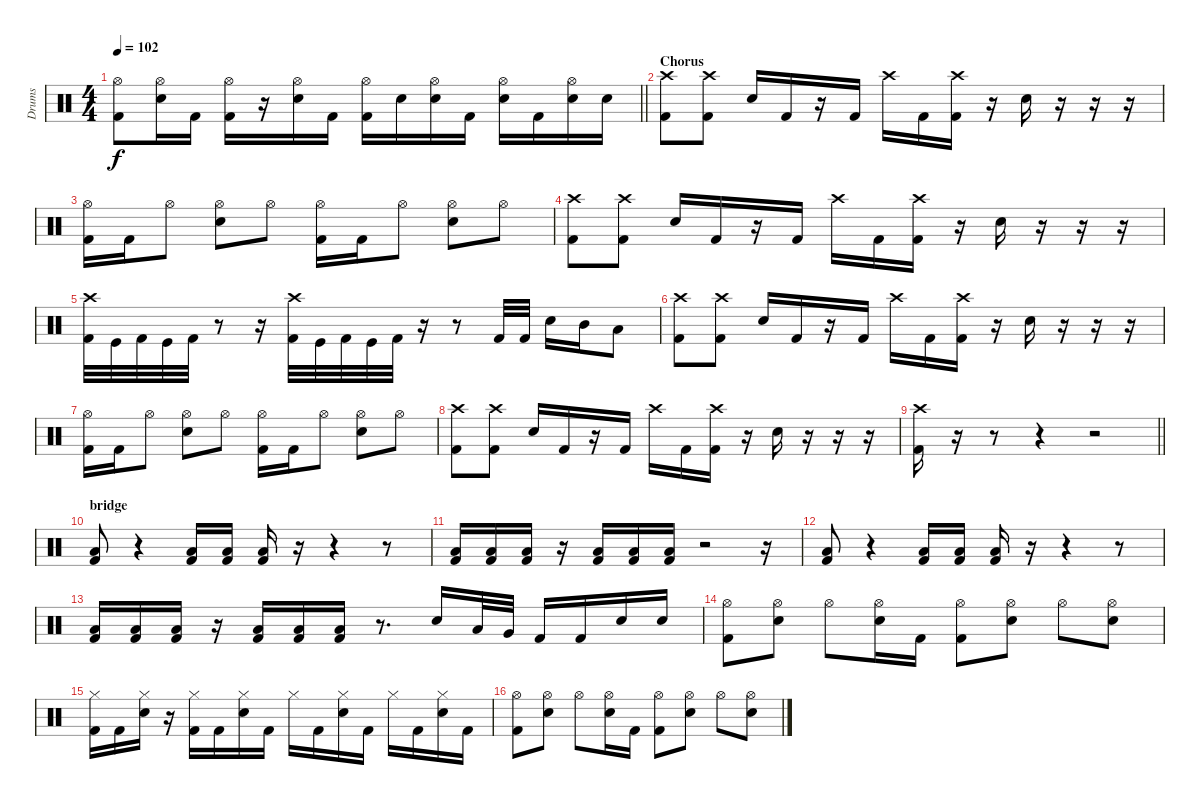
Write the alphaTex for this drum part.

\track ("Drums" "Drums") {instrument percussion}
\staff {score}
\articulation defaults
\ts (4 4)
\tempo 102
\clef neutral
\barLineRight lightlight
\ks c
("Kick (hit) 2" "Hi-Hat (open)").8{dy f} ("Electric Snare (hit)" "Hi-Hat (open)").16 "Kick (hit) 2".16 ("Kick (hit) 2" "Hi-Hat (open)").16 r.16 ("Electric Snare (hit)" "Hi-Hat (open)").16 "Kick (hit) 2".16 ("Kick (hit) 2" "Hi-Hat (open)").16 "Electric Snare (hit)".16 ("Electric Snare (hit)" "Hi-Hat (open)").16 "Kick (hit) 2".16 ("Electric Snare (hit)" "Hi-Hat (open)").16 "Kick (hit) 2".16 ("Electric Snare (hit)" "Hi-Hat (open)").16 "Electric Snare (hit)".16 |
\section ("" "Chorus")
("Kick (hit) 2" "Crash high (hit)").8 ("Kick (hit) 2" "Crash high (hit)").8 "Electric Snare (hit)".16 "Kick (hit) 2".16 r.16 "Kick (hit) 2".16 "Crash high (hit)".16 "Kick (hit) 2".16 ("Kick (hit) 2" "Crash high (hit)").16 r.16 "Electric Snare (hit)".16 r.16 r.16 r.16 |
("Kick (hit) 2" "Hi-Hat (open)").16 "Kick (hit) 2".16 "Hi-Hat (open)".8 ("Electric Snare (hit)" "Hi-Hat (open)").8 "Hi-Hat (open)".8 ("Kick (hit) 2" "Hi-Hat (open)").16 "Kick (hit) 2".16 "Hi-Hat (open)".8 ("Electric Snare (hit)" "Hi-Hat (open)").8 "Hi-Hat (open)".8 |
("Kick (hit) 2" "Crash high (hit)").8 ("Kick (hit) 2" "Crash high (hit)").8 "Electric Snare (hit)".16 "Kick (hit) 2".16 r.16 "Kick (hit) 2".16 "Crash high (hit)".16 "Kick (hit) 2".16 ("Kick (hit) 2" "Crash high (hit)").16 r.16 "Electric Snare (hit)".16 r.16 r.16 r.16 |
("Kick (hit) 2" "Crash high (hit)").32 "Kick (hit)".32 "Kick (hit) 2".32 "Kick (hit)".32 "Kick (hit) 2".32 r.8 r.16 ("Kick (hit) 2" "Crash high (hit)").32 "Kick (hit)".32 "Kick (hit) 2".32 "Kick (hit)".32 "Kick (hit) 2".32 r.16 r.8 "Kick (hit) 2".32 "Kick (hit) 2".32 "Electric Snare (hit)".16 "Mid Tom (hit)".16 "Low Tom (hit)".8 |
("Kick (hit) 2" "Crash high (hit)").8 ("Kick (hit) 2" "Crash high (hit)").8 "Electric Snare (hit)".16 "Kick (hit) 2".16 r.16 "Kick (hit) 2".16 "Crash high (hit)".16 "Kick (hit) 2".16 ("Kick (hit) 2" "Crash high (hit)").16 r.16 "Electric Snare (hit)".16 r.16 r.16 r.16 |
("Kick (hit) 2" "Hi-Hat (open)").16 "Kick (hit) 2".16 "Hi-Hat (open)".8 ("Electric Snare (hit)" "Hi-Hat (open)").8 "Hi-Hat (open)".8 ("Kick (hit) 2" "Hi-Hat (open)").16 "Kick (hit) 2".16 "Hi-Hat (open)".8 ("Electric Snare (hit)" "Hi-Hat (open)").8 "Hi-Hat (open)".8 |
("Kick (hit) 2" "Crash high (hit)").8 ("Kick (hit) 2" "Crash high (hit)").8 "Electric Snare (hit)".16 "Kick (hit) 2".16 r.16 "Kick (hit) 2".16 "Crash high (hit)".16 "Kick (hit) 2".16 ("Kick (hit) 2" "Crash high (hit)").16 r.16 "Electric Snare (hit)".16 r.16 r.16 r.16 |
\barLineRight lightlight
("Kick (hit) 2" "Crash high (hit)").16 r.16 r.8 r.4 r.2 |
\section ("" "bridge")
("Kick (hit) 2" "Low Tom (hit)").8 r.4 ("Kick (hit) 2" "Low Tom (hit)").16 ("Kick (hit) 2" "Low Tom (hit)").16 ("Kick (hit) 2" "Low Tom (hit)").16 r.16 r.4 r.8 |
("Kick (hit) 2" "Low Tom (hit)").16 ("Kick (hit) 2" "Low Tom (hit)").16 ("Kick (hit) 2" "Low Tom (hit)").16 r.16 ("Kick (hit) 2" "Low Tom (hit)").16 ("Kick (hit) 2" "Low Tom (hit)").16 ("Kick (hit) 2" "Low Tom (hit)").16 r.2 r.16 |
("Kick (hit) 2" "Low Tom (hit)").8 r.4 ("Kick (hit) 2" "Low Tom (hit)").16 ("Kick (hit) 2" "Low Tom (hit)").16 ("Kick (hit) 2" "Low Tom (hit)").16 r.16 r.4 r.8 |
("Kick (hit) 2" "Low Tom (hit)").16 ("Kick (hit) 2" "Low Tom (hit)").16 ("Kick (hit) 2" "Low Tom (hit)").16 r.16 ("Kick (hit) 2" "Low Tom (hit)").16 ("Kick (hit) 2" "Low Tom (hit)").16 ("Kick (hit) 2" "Low Tom (hit)").16 r.8{d} "Electric Snare (hit)".16 "Low Tom (hit)".32 "Very Low Tom (hit)".32 "Kick (hit) 2".16 "Kick (hit) 2".16 "Electric Snare (hit)".16 "Electric Snare (hit)".16 |
("Kick (hit) 2" "Hi-Hat (open)").8 ("Electric Snare (hit)" "Hi-Hat (open)").8 "Hi-Hat (open)".8 ("Electric Snare (hit)" "Hi-Hat (open)").16 "Kick (hit) 2".16 ("Kick (hit) 2" "Hi-Hat (open)").8 ("Electric Snare (hit)" "Hi-Hat (open)").8 "Hi-Hat (open)".8 ("Electric Snare (hit)" "Hi-Hat (open)").8 |
("Kick (hit) 2" "Hi-Hat (closed)").16 "Kick (hit) 2".16 ("Electric Snare (hit)" "Hi-Hat (closed)").16 r.16 ("Kick (hit) 2" "Hi-Hat (closed)").16 "Kick (hit) 2".16 ("Electric Snare (hit)" "Hi-Hat (closed)").16 "Kick (hit) 2".16 "Hi-Hat (closed)".16 "Kick (hit) 2".16 ("Electric Snare (hit)" "Hi-Hat (closed)").16 "Kick (hit) 2".16 "Hi-Hat (closed)".16 "Kick (hit) 2".16 ("Electric Snare (hit)" "Hi-Hat (closed)").16 "Kick (hit) 2".16 |
("Kick (hit) 2" "Hi-Hat (open)").8 ("Electric Snare (hit)" "Hi-Hat (open)").8 "Hi-Hat (open)".8 ("Electric Snare (hit)" "Hi-Hat (open)").16 "Kick (hit) 2".16 ("Kick (hit) 2" "Hi-Hat (open)").8 ("Electric Snare (hit)" "Hi-Hat (open)").8 "Hi-Hat (open)".8 ("Electric Snare (hit)" "Hi-Hat (open)").8
